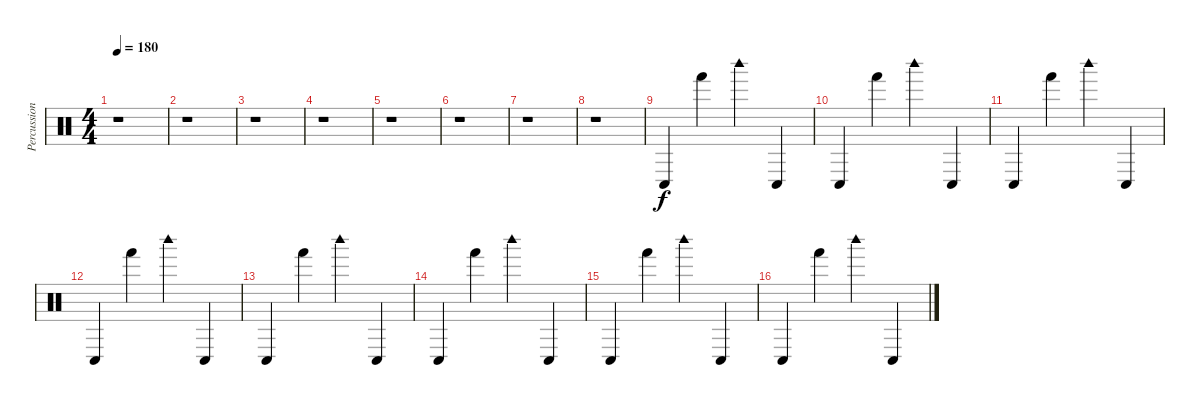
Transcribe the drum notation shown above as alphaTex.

\track ("Percussion / Drums" "Percussion") {instrument percussion}
\staff {score}
\articulation defaults
\ts (4 4)
\tempo 180
\clef neutral
\ks c
r.1{dy f} |
r.1 |
r.1 |
r.1 |
r.1 |
r.1 |
r.1 |
r.1 |
"Conga low (hit)".4 "Hand (hit)".4 "Woodblock high (hit)".4 "Conga low (hit)".4 |
"Conga low (hit)".4 "Hand (hit)".4 "Woodblock high (hit)".4 "Conga low (hit)".4 |
"Conga low (hit)".4 "Hand (hit)".4 "Woodblock high (hit)".4 "Conga low (hit)".4 |
"Conga low (hit)".4 "Hand (hit)".4 "Woodblock high (hit)".4 "Conga low (hit)".4 |
"Conga low (hit)".4 "Hand (hit)".4 "Woodblock high (hit)".4 "Conga low (hit)".4 |
"Conga low (hit)".4 "Hand (hit)".4 "Woodblock high (hit)".4 "Conga low (hit)".4 |
"Conga low (hit)".4 "Hand (hit)".4 "Woodblock high (hit)".4 "Conga low (hit)".4 |
"Conga low (hit)".4 "Hand (hit)".4 "Woodblock high (hit)".4 "Conga low (hit)".4
